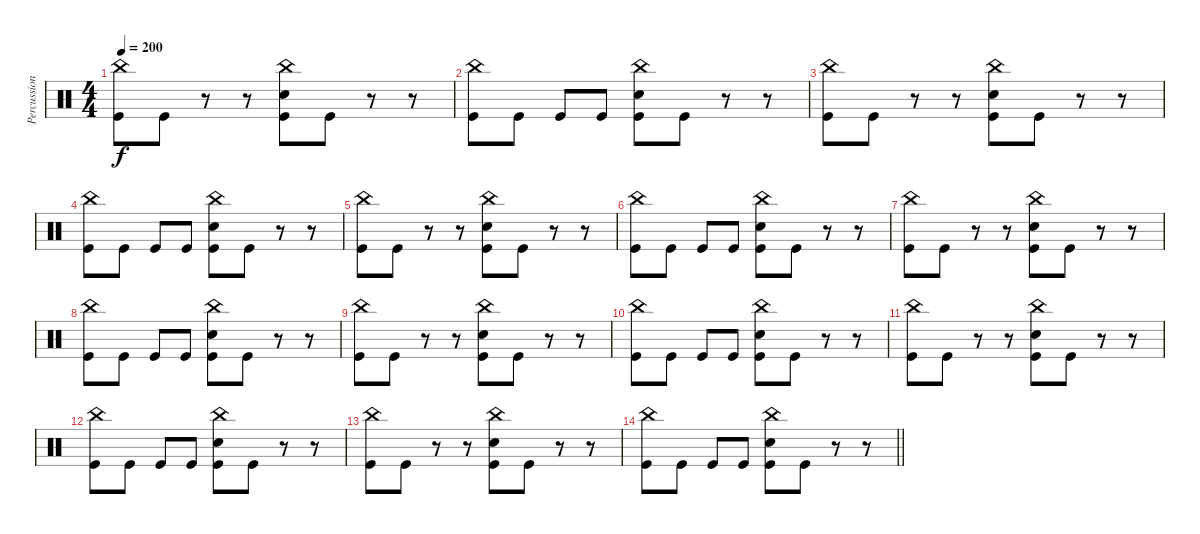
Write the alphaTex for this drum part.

\track ("Percussion" "Percussion") {instrument percussion}
\staff {score}
\articulation defaults
\ts (4 4)
\tempo 200
\clef neutral
\ks c
("China (hit)" "Kick (hit)").8{dy f} "Kick (hit)".8 r.8 r.8 ("China (hit)" "Snare (hit) 2" "Kick (hit)").8 "Kick (hit)".8 r.8 r.8 |
("China (hit)" "Kick (hit)").8 "Kick (hit)".8 "Kick (hit)".8 "Kick (hit)".8 ("China (hit)" "Snare (hit) 2" "Kick (hit)").8 "Kick (hit)".8 r.8 r.8 |
("China (hit)" "Kick (hit)").8 "Kick (hit)".8 r.8 r.8 ("China (hit)" "Snare (hit) 2" "Kick (hit)").8 "Kick (hit)".8 r.8 r.8 |
("China (hit)" "Kick (hit)").8 "Kick (hit)".8 "Kick (hit)".8 "Kick (hit)".8 ("China (hit)" "Snare (hit) 2" "Kick (hit)").8 "Kick (hit)".8 r.8 r.8 |
("China (hit)" "Kick (hit)").8 "Kick (hit)".8 r.8 r.8 ("China (hit)" "Snare (hit) 2" "Kick (hit)").8 "Kick (hit)".8 r.8 r.8 |
("China (hit)" "Kick (hit)").8 "Kick (hit)".8 "Kick (hit)".8 "Kick (hit)".8 ("China (hit)" "Snare (hit) 2" "Kick (hit)").8 "Kick (hit)".8 r.8 r.8 |
("China (hit)" "Kick (hit)").8 "Kick (hit)".8 r.8 r.8 ("China (hit)" "Snare (hit) 2" "Kick (hit)").8 "Kick (hit)".8 r.8 r.8 |
("China (hit)" "Kick (hit)").8 "Kick (hit)".8 "Kick (hit)".8 "Kick (hit)".8 ("China (hit)" "Snare (hit) 2" "Kick (hit)").8 "Kick (hit)".8 r.8 r.8 |
("China (hit)" "Kick (hit)").8 "Kick (hit)".8 r.8 r.8 ("China (hit)" "Snare (hit) 2" "Kick (hit)").8 "Kick (hit)".8 r.8 r.8 |
("China (hit)" "Kick (hit)").8 "Kick (hit)".8 "Kick (hit)".8 "Kick (hit)".8 ("China (hit)" "Snare (hit) 2" "Kick (hit)").8 "Kick (hit)".8 r.8 r.8 |
("China (hit)" "Kick (hit)").8 "Kick (hit)".8 r.8 r.8 ("China (hit)" "Snare (hit) 2" "Kick (hit)").8 "Kick (hit)".8 r.8 r.8 |
("China (hit)" "Kick (hit)").8 "Kick (hit)".8 "Kick (hit)".8 "Kick (hit)".8 ("China (hit)" "Snare (hit) 2" "Kick (hit)").8 "Kick (hit)".8 r.8 r.8 |
("China (hit)" "Kick (hit)").8 "Kick (hit)".8 r.8 r.8 ("China (hit)" "Snare (hit) 2" "Kick (hit)").8 "Kick (hit)".8 r.8 r.8 |
\barLineRight lightlight
("China (hit)" "Kick (hit)").8 "Kick (hit)".8 "Kick (hit)".8 "Kick (hit)".8 ("China (hit)" "Snare (hit) 2" "Kick (hit)").8 "Kick (hit)".8 r.8 r.8
